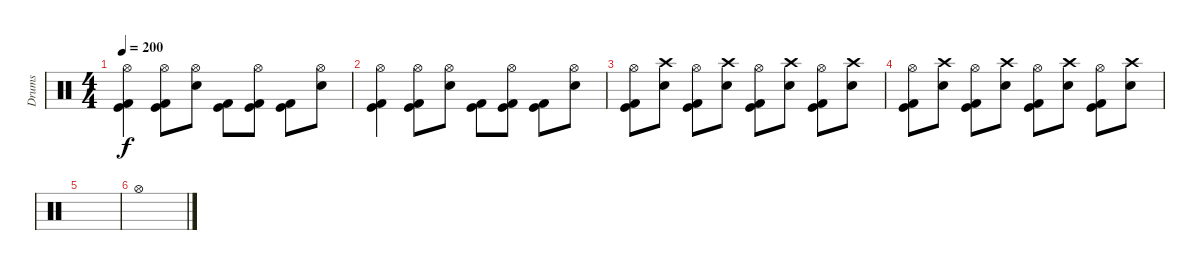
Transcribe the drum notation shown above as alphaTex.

\track ("Drums" "Drums") {instrument percussion}
\staff {score}
\articulation defaults
\ts (4 4)
\tempo 200
\clef neutral
\ks c
("Hi-Hat (open)" "Kick (hit) 2" "Kick (hit)").4{dy f} ("Hi-Hat (open)" "Kick (hit) 2" "Kick (hit)").8 ("Hi-Hat (open)" "Electric Snare (hit)").8 ("Kick (hit) 2" "Kick (hit)").8 ("Hi-Hat (open)" "Kick (hit) 2" "Kick (hit)").8 ("Kick (hit) 2" "Kick (hit)").8 ("Hi-Hat (open)" "Electric Snare (hit)").8 |
("Hi-Hat (open)" "Kick (hit) 2" "Kick (hit)").4 ("Hi-Hat (open)" "Kick (hit) 2" "Kick (hit)").8 ("Hi-Hat (open)" "Electric Snare (hit)").8 ("Kick (hit) 2" "Kick (hit)").8 ("Hi-Hat (open)" "Kick (hit) 2" "Kick (hit)").8 ("Kick (hit) 2" "Kick (hit)").8 ("Hi-Hat (open)" "Electric Snare (hit)").8 |
("Hi-Hat (open)" "Kick (hit)" "Kick (hit) 2").8 ("Electric Snare (hit)" "Crash high (hit)").8 ("Hi-Hat (open)" "Kick (hit)" "Kick (hit) 2").8 ("Electric Snare (hit)" "Crash high (hit)").8 ("Hi-Hat (open)" "Kick (hit)" "Kick (hit) 2").8 ("Electric Snare (hit)" "Crash high (hit)").8 ("Hi-Hat (open)" "Kick (hit)" "Kick (hit) 2").8 ("Electric Snare (hit)" "Crash high (hit)").8 |
("Hi-Hat (open)" "Kick (hit)" "Kick (hit) 2").8 ("Electric Snare (hit)" "Crash high (hit)").8 ("Hi-Hat (open)" "Kick (hit)" "Kick (hit) 2").8 ("Electric Snare (hit)" "Crash high (hit)").8 ("Hi-Hat (open)" "Kick (hit)" "Kick (hit) 2").8 ("Electric Snare (hit)" "Crash high (hit)").8 ("Hi-Hat (open)" "Kick (hit)" "Kick (hit) 2").8 ("Electric Snare (hit)" "Crash high (hit)").8 |
|
"Hi-Hat (open)".1
